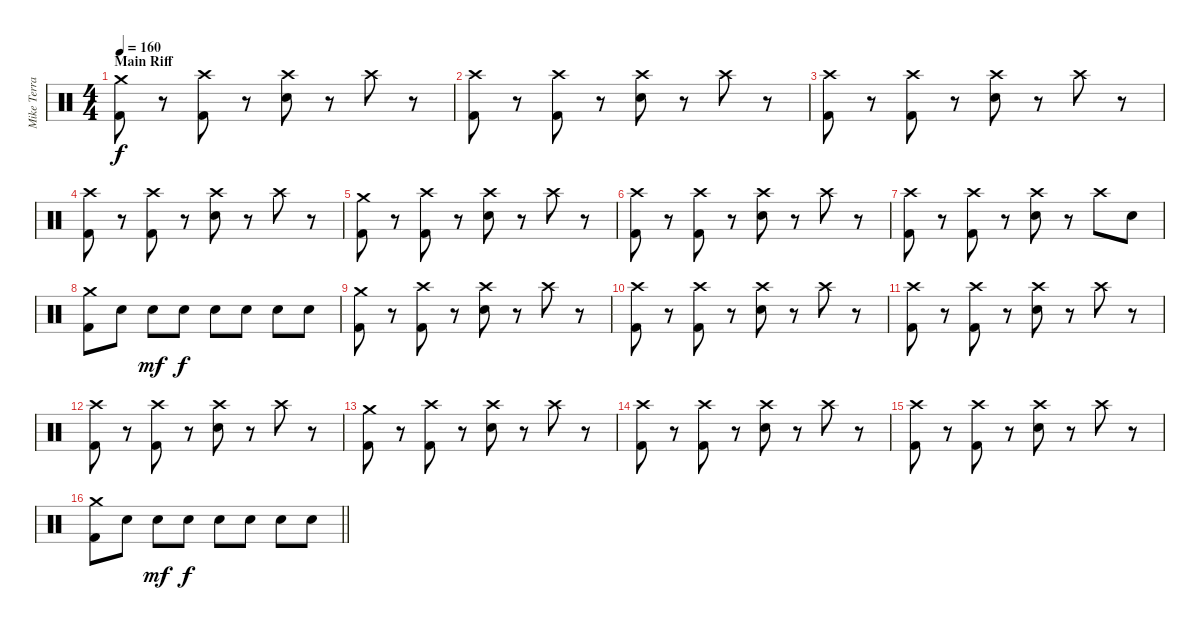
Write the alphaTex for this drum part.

\track ("Mike Terrana" "Mike Terra") {instrument percussion}
\staff {score}
\articulation defaults
\ts (4 4)
\section ("" "Main Riff")
\tempo 160
\clef neutral
\ks c
("Crash medium (hit)" "Kick (hit) 2").8{dy f} r.8 ("Crash high (hit)" "Kick (hit) 2").8 r.8 ("Crash high (hit)" "Snare (hit) 2").8 r.8 "Crash high (hit)".8 r.8 |
("Crash high (hit)" "Kick (hit) 2").8 r.8 ("Crash high (hit)" "Kick (hit) 2").8 r.8 ("Crash high (hit)" "Snare (hit) 2").8 r.8 "Crash high (hit)".8 r.8 |
("Crash high (hit)" "Kick (hit) 2").8 r.8 ("Crash high (hit)" "Kick (hit) 2").8 r.8 ("Crash high (hit)" "Snare (hit) 2").8 r.8 "Crash high (hit)".8 r.8 |
("Crash high (hit)" "Kick (hit) 2").8 r.8 ("Crash high (hit)" "Kick (hit) 2").8 r.8 ("Crash high (hit)" "Snare (hit) 2").8 r.8 "Crash high (hit)".8 r.8 |
("Crash medium (hit)" "Kick (hit) 2").8 r.8 ("Crash high (hit)" "Kick (hit) 2").8 r.8 ("Crash high (hit)" "Snare (hit) 2").8 r.8 "Crash high (hit)".8 r.8 |
("Crash high (hit)" "Kick (hit) 2").8 r.8 ("Crash high (hit)" "Kick (hit) 2").8 r.8 ("Crash high (hit)" "Snare (hit) 2").8 r.8 "Crash high (hit)".8 r.8 |
("Crash high (hit)" "Kick (hit) 2").8 r.8 ("Crash high (hit)" "Kick (hit) 2").8 r.8 ("Crash high (hit)" "Snare (hit) 2").8 r.8 "Crash high (hit)".8 "Snare (hit) 2".8 |
("Crash medium (hit)" "Kick (hit) 2").8 "Snare (hit) 2".8 "Snare (hit) 2".8{dy mf} "Snare (hit) 2".8{dy f} "Snare (hit) 2".8 "Snare (hit) 2".8 "Snare (hit) 2".8 "Snare (hit) 2".8 |
("Crash medium (hit)" "Kick (hit) 2").8 r.8 ("Crash high (hit)" "Kick (hit) 2").8 r.8 ("Crash high (hit)" "Snare (hit) 2").8 r.8 "Crash high (hit)".8 r.8 |
("Crash high (hit)" "Kick (hit) 2").8 r.8 ("Crash high (hit)" "Kick (hit) 2").8 r.8 ("Crash high (hit)" "Snare (hit) 2").8 r.8 "Crash high (hit)".8 r.8 |
("Crash high (hit)" "Kick (hit) 2").8 r.8 ("Crash high (hit)" "Kick (hit) 2").8 r.8 ("Crash high (hit)" "Snare (hit) 2").8 r.8 "Crash high (hit)".8 r.8 |
("Crash high (hit)" "Kick (hit) 2").8 r.8 ("Crash high (hit)" "Kick (hit) 2").8 r.8 ("Crash high (hit)" "Snare (hit) 2").8 r.8 "Crash high (hit)".8 r.8 |
("Crash medium (hit)" "Kick (hit) 2").8 r.8 ("Crash high (hit)" "Kick (hit) 2").8 r.8 ("Crash high (hit)" "Snare (hit) 2").8 r.8 "Crash high (hit)".8 r.8 |
("Crash high (hit)" "Kick (hit) 2").8 r.8 ("Crash high (hit)" "Kick (hit) 2").8 r.8 ("Crash high (hit)" "Snare (hit) 2").8 r.8 "Crash high (hit)".8 r.8 |
("Crash high (hit)" "Kick (hit) 2").8 r.8 ("Crash high (hit)" "Kick (hit) 2").8 r.8 ("Crash high (hit)" "Snare (hit) 2").8 r.8 "Crash high (hit)".8 r.8 |
\barLineRight lightlight
("Crash medium (hit)" "Kick (hit) 2").8 "Snare (hit) 2".8 "Snare (hit) 2".8{dy mf} "Snare (hit) 2".8{dy f} "Snare (hit) 2".8 "Snare (hit) 2".8 "Snare (hit) 2".8 "Snare (hit) 2".8
